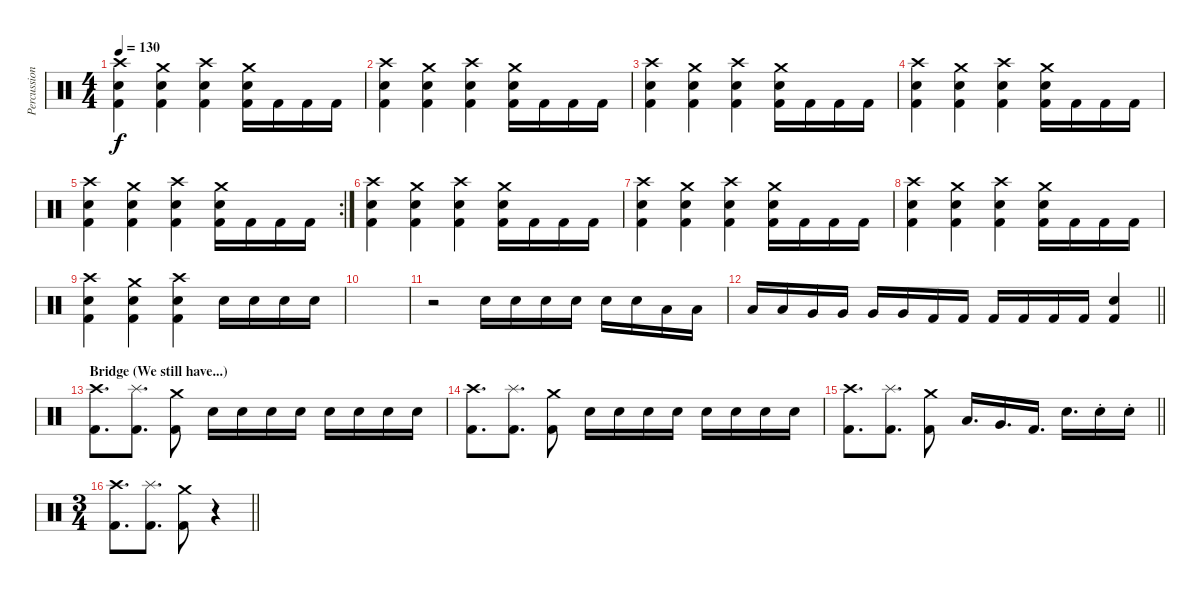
\track ("Percussion" "Percussion") {instrument percussion}
\staff {score}
\articulation defaults
\ts (4 4)
\tempo 130
\clef neutral
\ks c
("Crash high (hit)" "Snare (hit) 2" "Kick (hit) 2").4{dy f} ("Crash medium (hit)" "Snare (hit) 2" "Kick (hit) 2").4 ("Crash high (hit)" "Snare (hit) 2" "Kick (hit) 2").4 ("Crash medium (hit)" "Snare (hit) 2" "Kick (hit) 2").16 "Kick (hit) 2".16 "Kick (hit) 2".16 "Kick (hit) 2".16 |
("Crash high (hit)" "Snare (hit) 2" "Kick (hit) 2").4 ("Crash medium (hit)" "Snare (hit) 2" "Kick (hit) 2").4 ("Crash high (hit)" "Snare (hit) 2" "Kick (hit) 2").4 ("Crash medium (hit)" "Snare (hit) 2" "Kick (hit) 2").16 "Kick (hit) 2".16 "Kick (hit) 2".16 "Kick (hit) 2".16 |
("Crash high (hit)" "Snare (hit) 2" "Kick (hit) 2").4 ("Crash medium (hit)" "Snare (hit) 2" "Kick (hit) 2").4 ("Crash high (hit)" "Snare (hit) 2" "Kick (hit) 2").4 ("Crash medium (hit)" "Snare (hit) 2" "Kick (hit) 2").16 "Kick (hit) 2".16 "Kick (hit) 2".16 "Kick (hit) 2".16 |
("Crash high (hit)" "Snare (hit) 2" "Kick (hit) 2").4 ("Crash medium (hit)" "Snare (hit) 2" "Kick (hit) 2").4 ("Crash high (hit)" "Snare (hit) 2" "Kick (hit) 2").4 ("Crash medium (hit)" "Snare (hit) 2" "Kick (hit) 2").16 "Kick (hit) 2".16 "Kick (hit) 2".16 "Kick (hit) 2".16 |
\rc 2
("Crash high (hit)" "Snare (hit) 2" "Kick (hit) 2").4 ("Crash medium (hit)" "Snare (hit) 2" "Kick (hit) 2").4 ("Crash high (hit)" "Snare (hit) 2" "Kick (hit) 2").4 ("Crash medium (hit)" "Snare (hit) 2" "Kick (hit) 2").16 "Kick (hit) 2".16 "Kick (hit) 2".16 "Kick (hit) 2".16 |
("Crash high (hit)" "Snare (hit) 2" "Kick (hit) 2").4 ("Crash medium (hit)" "Snare (hit) 2" "Kick (hit) 2").4 ("Crash high (hit)" "Snare (hit) 2" "Kick (hit) 2").4 ("Crash medium (hit)" "Snare (hit) 2" "Kick (hit) 2").16 "Kick (hit) 2".16 "Kick (hit) 2".16 "Kick (hit) 2".16 |
("Crash high (hit)" "Snare (hit) 2" "Kick (hit) 2").4 ("Crash medium (hit)" "Snare (hit) 2" "Kick (hit) 2").4 ("Crash high (hit)" "Snare (hit) 2" "Kick (hit) 2").4 ("Crash medium (hit)" "Snare (hit) 2" "Kick (hit) 2").16 "Kick (hit) 2".16 "Kick (hit) 2".16 "Kick (hit) 2".16 |
("Crash high (hit)" "Snare (hit) 2" "Kick (hit) 2").4 ("Crash medium (hit)" "Snare (hit) 2" "Kick (hit) 2").4 ("Crash high (hit)" "Snare (hit) 2" "Kick (hit) 2").4 ("Crash medium (hit)" "Snare (hit) 2" "Kick (hit) 2").16 "Kick (hit) 2".16 "Kick (hit) 2".16 "Kick (hit) 2".16 |
("Crash high (hit)" "Snare (hit) 2" "Kick (hit) 2").4 ("Crash medium (hit)" "Snare (hit) 2" "Kick (hit) 2").4 ("Crash high (hit)" "Snare (hit) 2" "Kick (hit) 2").4 "Snare (hit) 2".16 "Snare (hit) 2".16 "Snare (hit) 2".16 "Snare (hit) 2".16 |
|
r.2 "Snare (hit) 2".16 "Snare (hit) 2".16 "Snare (hit) 2".16 "Snare (hit) 2".16 "Snare (hit) 2".16 "Snare (hit) 2".16 "Low Tom (hit)".16 "Low Tom (hit)".16 |
\barLineRight lightlight "Low Tom (hit)".16 "Low Tom (hit)".16 "Very Low Tom (hit)".16 "Very Low Tom (hit)".16 "Very Low Tom (hit)".16 "Very Low Tom (hit)".16 "Kick (hit) 2".16 "Kick (hit) 2".16 "Kick (hit) 2".16 "Kick (hit) 2".16 "Kick (hit) 2".16 "Kick (hit) 2".16
("Snare (hit) 2" "Kick (hit) 2").4 |
\section ("" "Bridge (We still have...)")
("Crash high (hit)" "Kick (hit) 2").8{d} ("Splash (hit)" "Kick (hit) 2").8{d} ("Crash medium (hit)" "Kick (hit) 2").8 "Snare (hit) 2".16 "Snare (hit) 2".16 "Snare (hit) 2".16 "Snare (hit) 2".16 "Snare (hit) 2".16 "Snare (hit) 2".16 "Snare (hit) 2".16 "Snare (hit) 2".16 |
("Crash high (hit)" "Kick (hit) 2").8{d} ("Splash (hit)" "Kick (hit) 2").8{d} ("Crash medium (hit)" "Kick (hit) 2").8 "Snare (hit) 2".16 "Snare (hit) 2".16 "Snare (hit) 2".16 "Snare (hit) 2".16 "Snare (hit) 2".16 "Snare (hit) 2".16 "Snare (hit) 2".16 "Snare (hit) 2".16 |
\barLineRight lightlight
("Crash high (hit)" "Kick (hit) 2").8{d} ("Splash (hit)" "Kick (hit) 2").8{d} ("Crash medium (hit)" "Kick (hit) 2").8 "Low Tom (hit)".16{d} "Very Low Tom (hit)".16{d} "Kick (hit) 2".16{d} "Snare (hit) 2".16{d} "Snare (hit) 2"{st}.16 "Snare (hit) 2"{st}.16 |
\ts (3 4)
\section ("" "")
\barLineRight lightlight
("Crash high (hit)" "Kick (hit) 2").8{d} ("Splash (hit)" "Kick (hit) 2").8{d} ("Crash medium (hit)" "Kick (hit) 2").8 r.4
